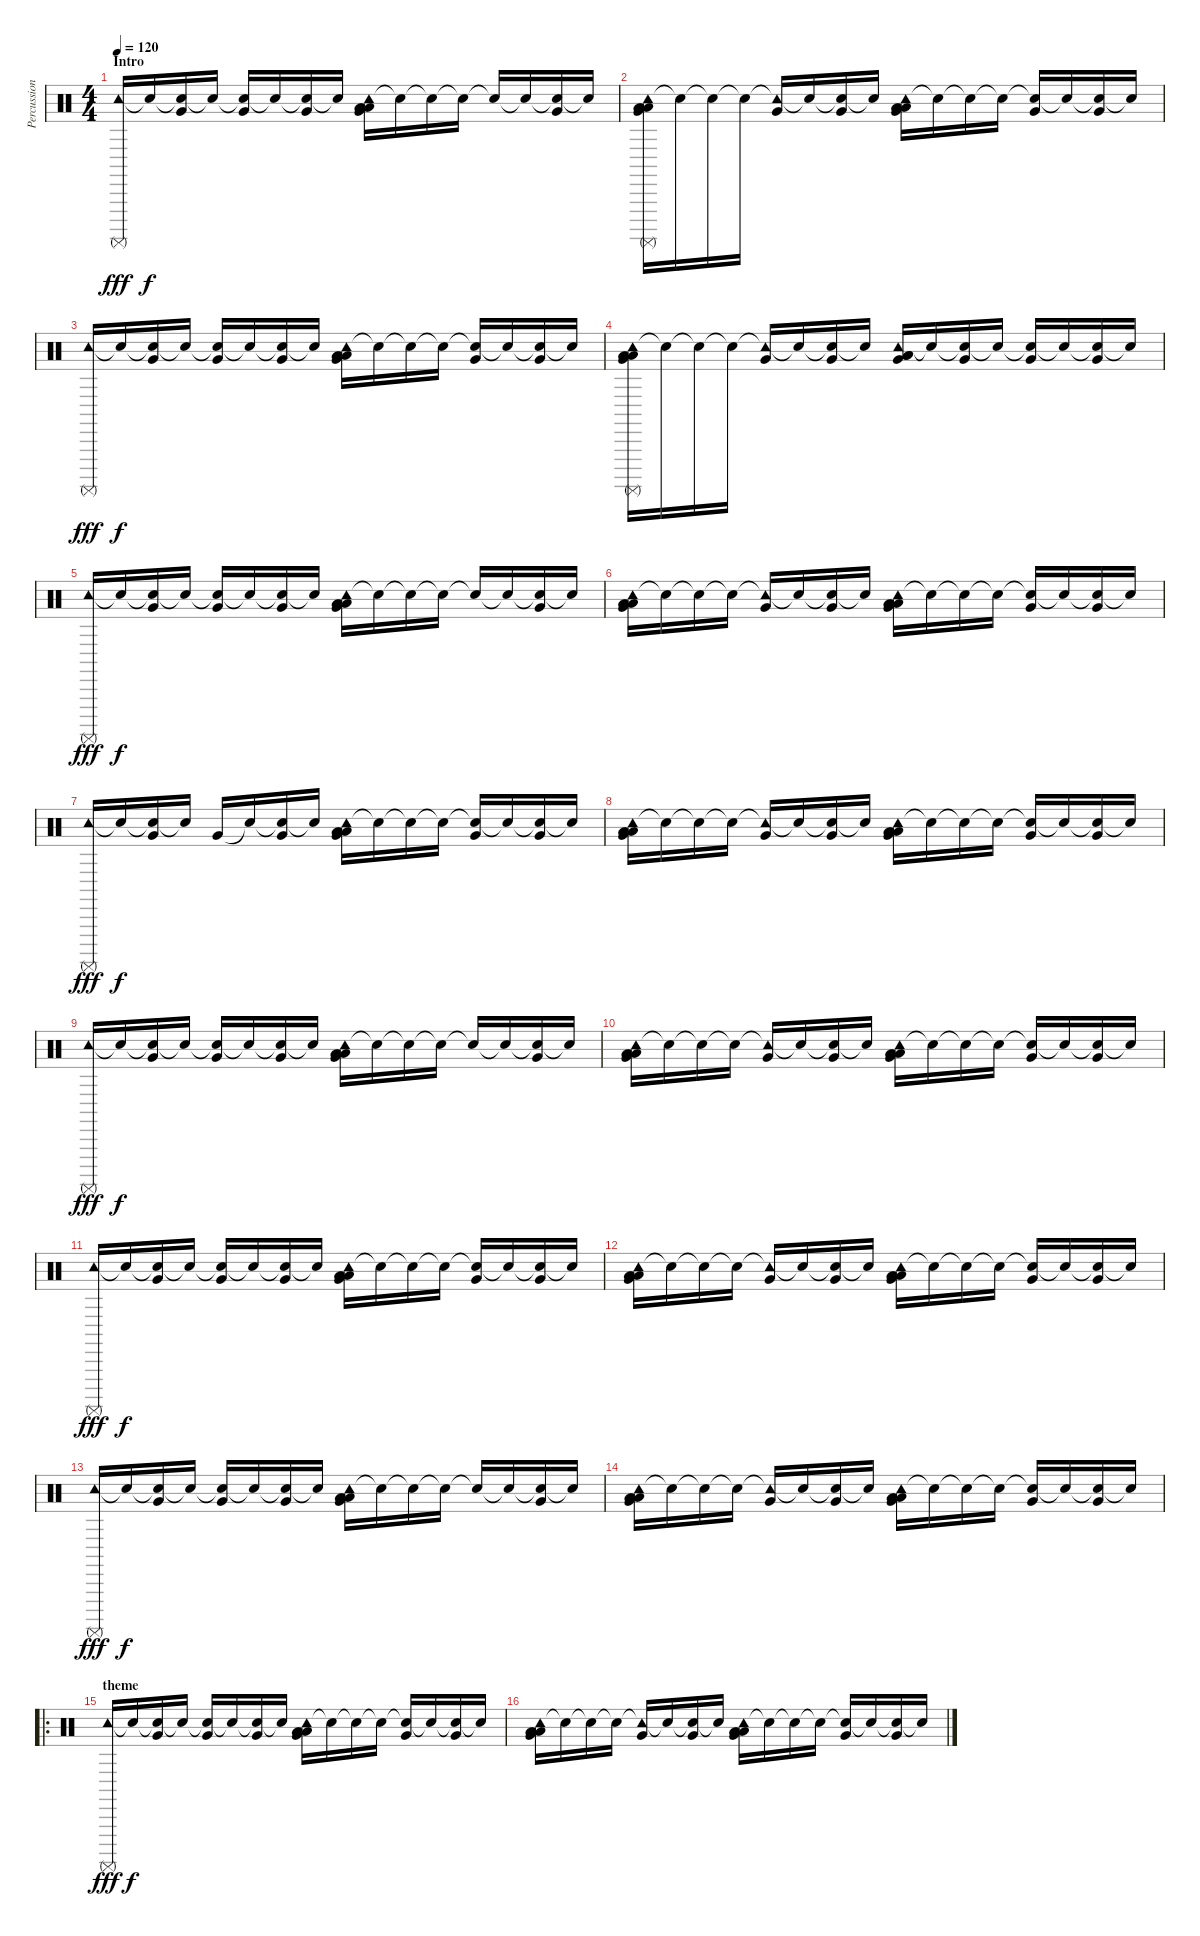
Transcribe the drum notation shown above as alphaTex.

\track ("Percussion" "Percussion") {instrument percussion}
\staff {score}
\articulation defaults
\ts (4 4)
\section ("" "Intro")
\tempo 120
\clef neutral
\ks c
("Tambourine (hit)" "Surdo (mute)").16{dy fff} "Snare (hit)"{t}.16{dy f} ("Snare (hit)"{t} "Very Low Tom (hit)").16 "Snare (hit)"{t}.16 ("Snare (hit)"{t} "Very Low Tom (hit)").16 "Snare (hit)"{t}.16 ("Snare (hit)"{t} "Very Low Tom (hit)").16 "Snare (hit)"{t}.16 ("Tambourine (hit)" "Low Floor Tom (hit)" "Very Low Tom (hit)" "Low Tom (hit)").16 "Snare (hit)"{t}.16 "Snare (hit)"{t}.16 "Snare (hit)"{t}.16 "Snare (hit)"{t}.16 "Snare (hit)"{t}.16 ("Snare (hit)"{t} "Very Low Tom (hit)").16 "Snare (hit)"{t}.16 |
("Tambourine (hit)" "Low Floor Tom (hit)" "Very Low Tom (hit)" "Low Tom (hit)" "Surdo (mute)").16 "Snare (hit)"{t}.16 "Snare (hit)"{t}.16 "Snare (hit)"{t}.16 ("Tambourine (hit)"{t} "Very Low Tom (hit)").16 "Snare (hit)"{t}.16 ("Snare (hit)"{t} "Very Low Tom (hit)").16 "Snare (hit)"{t}.16 ("Tambourine (hit)" "Low Floor Tom (hit)" "Very Low Tom (hit)" "Low Tom (hit)").16 "Snare (hit)"{t}.16 "Snare (hit)"{t}.16 "Snare (hit)"{t}.16 ("Snare (hit)"{t} "Very Low Tom (hit)").16 "Snare (hit)"{t}.16 ("Snare (hit)"{t} "Very Low Tom (hit)").16 "Snare (hit)"{t}.16 |
("Tambourine (hit)" "Surdo (mute)").16{dy fff} "Snare (hit)"{t}.16{dy f} ("Snare (hit)"{t} "Very Low Tom (hit)").16 "Snare (hit)"{t}.16 ("Snare (hit)"{t} "Very Low Tom (hit)").16 "Snare (hit)"{t}.16 ("Snare (hit)"{t} "Very Low Tom (hit)").16 "Snare (hit)"{t}.16 ("Tambourine (hit)" "Low Floor Tom (hit)" "Very Low Tom (hit)" "Low Tom (hit)").16 "Snare (hit)"{t}.16 "Snare (hit)"{t}.16 "Snare (hit)"{t}.16 ("Snare (hit)"{t} "Very Low Tom (hit)").16 "Snare (hit)"{t}.16 ("Snare (hit)"{t} "Very Low Tom (hit)").16 "Snare (hit)"{t}.16 |
("Tambourine (hit)" "Low Floor Tom (hit)" "Very Low Tom (hit)" "Low Tom (hit)" "Surdo (mute)").16 "Snare (hit)"{t}.16 "Snare (hit)"{t}.16 "Snare (hit)"{t}.16 ("Tambourine (hit)"{t} "Very Low Tom (hit)").16 "Snare (hit)"{t}.16 ("Snare (hit)"{t} "Very Low Tom (hit)").16 "Snare (hit)"{t}.16 ("Tambourine (hit)" "Low Floor Tom (hit)" "Very Low Tom (hit)" "Low Tom (hit)").16 "Snare (hit)"{t}.16 ("Snare (hit)"{t} "Very Low Tom (hit)").16 "Snare (hit)"{t}.16 ("Snare (hit)"{t} "Very Low Tom (hit)").16 "Snare (hit)"{t}.16 ("Snare (hit)"{t} "Very Low Tom (hit)").16 "Snare (hit)"{t}.16 |
("Tambourine (hit)" "Surdo (mute)").16{dy fff} "Snare (hit)"{t}.16{dy f} ("Snare (hit)"{t} "Very Low Tom (hit)").16 "Snare (hit)"{t}.16 ("Snare (hit)"{t} "Very Low Tom (hit)").16 "Snare (hit)"{t}.16 ("Snare (hit)"{t} "Very Low Tom (hit)").16 "Snare (hit)"{t}.16 ("Tambourine (hit)" "Low Floor Tom (hit)" "Very Low Tom (hit)" "Low Tom (hit)").16 "Snare (hit)"{t}.16 "Snare (hit)"{t}.16 "Snare (hit)"{t}.16 "Snare (hit)"{t}.16 "Snare (hit)"{t}.16 ("Snare (hit)"{t} "Very Low Tom (hit)").16 "Snare (hit)"{t}.16 |
("Tambourine (hit)" "Low Floor Tom (hit)" "Very Low Tom (hit)" "Low Tom (hit)").16 "Snare (hit)"{t}.16 "Snare (hit)"{t}.16 "Snare (hit)"{t}.16 ("Tambourine (hit)"{t} "Very Low Tom (hit)").16 "Snare (hit)"{t}.16 ("Snare (hit)"{t} "Very Low Tom (hit)").16 "Snare (hit)"{t}.16 ("Tambourine (hit)" "Low Floor Tom (hit)" "Very Low Tom (hit)" "Low Tom (hit)").16 "Snare (hit)"{t}.16 "Snare (hit)"{t}.16 "Snare (hit)"{t}.16 ("Snare (hit)"{t} "Very Low Tom (hit)").16 "Snare (hit)"{t}.16 ("Snare (hit)"{t} "Very Low Tom (hit)").16 "Snare (hit)"{t}.16 |
("Tambourine (hit)" "Surdo (mute)").16{dy fff} "Snare (hit)"{t}.16{dy f} ("Snare (hit)"{t} "Very Low Tom (hit)").16 "Snare (hit)"{t}.16 "Very Low Tom (hit)".16 "Snare (hit)"{t}.16 ("Snare (hit)"{t} "Very Low Tom (hit)").16 "Snare (hit)"{t}.16 ("Tambourine (hit)" "Low Floor Tom (hit)" "Very Low Tom (hit)" "Low Tom (hit)").16 "Snare (hit)"{t}.16 "Snare (hit)"{t}.16 "Snare (hit)"{t}.16 ("Snare (hit)"{t} "Very Low Tom (hit)").16 "Snare (hit)"{t}.16 ("Snare (hit)"{t} "Very Low Tom (hit)").16 "Snare (hit)"{t}.16 |
("Tambourine (hit)" "Low Floor Tom (hit)" "Very Low Tom (hit)" "Low Tom (hit)").16 "Snare (hit)"{t}.16 "Snare (hit)"{t}.16 "Snare (hit)"{t}.16 ("Tambourine (hit)"{t} "Very Low Tom (hit)").16 "Snare (hit)"{t}.16 ("Snare (hit)"{t} "Very Low Tom (hit)").16 "Snare (hit)"{t}.16 ("Tambourine (hit)" "Low Floor Tom (hit)" "Very Low Tom (hit)" "Low Tom (hit)").16 "Snare (hit)"{t}.16 "Snare (hit)"{t}.16 "Snare (hit)"{t}.16 ("Snare (hit)"{t} "Very Low Tom (hit)").16 "Snare (hit)"{t}.16 ("Snare (hit)"{t} "Very Low Tom (hit)").16 "Snare (hit)"{t}.16 |
("Tambourine (hit)" "Surdo (mute)").16{dy fff} "Snare (hit)"{t}.16{dy f} ("Snare (hit)"{t} "Very Low Tom (hit)").16 "Snare (hit)"{t}.16 ("Snare (hit)"{t} "Very Low Tom (hit)").16 "Snare (hit)"{t}.16 ("Snare (hit)"{t} "Very Low Tom (hit)").16 "Snare (hit)"{t}.16 ("Tambourine (hit)" "Low Floor Tom (hit)" "Very Low Tom (hit)" "Low Tom (hit)").16 "Snare (hit)"{t}.16 "Snare (hit)"{t}.16 "Snare (hit)"{t}.16 "Snare (hit)"{t}.16 "Snare (hit)"{t}.16 ("Snare (hit)"{t} "Very Low Tom (hit)").16 "Snare (hit)"{t}.16 |
("Tambourine (hit)" "Low Floor Tom (hit)" "Very Low Tom (hit)" "Low Tom (hit)").16 "Snare (hit)"{t}.16 "Snare (hit)"{t}.16 "Snare (hit)"{t}.16 ("Tambourine (hit)"{t} "Very Low Tom (hit)").16 "Snare (hit)"{t}.16 ("Snare (hit)"{t} "Very Low Tom (hit)").16 "Snare (hit)"{t}.16 ("Tambourine (hit)" "Low Floor Tom (hit)" "Very Low Tom (hit)" "Low Tom (hit)").16 "Snare (hit)"{t}.16 "Snare (hit)"{t}.16 "Snare (hit)"{t}.16 ("Snare (hit)"{t} "Very Low Tom (hit)").16 "Snare (hit)"{t}.16 ("Snare (hit)"{t} "Very Low Tom (hit)").16 "Snare (hit)"{t}.16 |
("Tambourine (hit)" "Surdo (mute)").16{dy fff} "Snare (hit)"{t}.16{dy f} ("Snare (hit)"{t} "Very Low Tom (hit)").16 "Snare (hit)"{t}.16 ("Snare (hit)"{t} "Very Low Tom (hit)").16 "Snare (hit)"{t}.16 ("Snare (hit)"{t} "Very Low Tom (hit)").16 "Snare (hit)"{t}.16 ("Tambourine (hit)" "Low Floor Tom (hit)" "Very Low Tom (hit)" "Low Tom (hit)").16 "Snare (hit)"{t}.16 "Snare (hit)"{t}.16 "Snare (hit)"{t}.16 ("Snare (hit)"{t} "Very Low Tom (hit)").16 "Snare (hit)"{t}.16 ("Snare (hit)"{t} "Very Low Tom (hit)").16 "Snare (hit)"{t}.16 |
("Tambourine (hit)" "Low Floor Tom (hit)" "Very Low Tom (hit)" "Low Tom (hit)").16 "Snare (hit)"{t}.16 "Snare (hit)"{t}.16 "Snare (hit)"{t}.16 ("Tambourine (hit)"{t} "Very Low Tom (hit)").16 "Snare (hit)"{t}.16 ("Snare (hit)"{t} "Very Low Tom (hit)").16 "Snare (hit)"{t}.16 ("Tambourine (hit)" "Low Floor Tom (hit)" "Very Low Tom (hit)" "Low Tom (hit)").16 "Snare (hit)"{t}.16 "Snare (hit)"{t}.16 "Snare (hit)"{t}.16 ("Snare (hit)"{t} "Very Low Tom (hit)").16 "Snare (hit)"{t}.16 ("Snare (hit)"{t} "Very Low Tom (hit)").16 "Snare (hit)"{t}.16 |
("Tambourine (hit)" "Surdo (mute)").16{dy fff} "Snare (hit)"{t}.16{dy f} ("Snare (hit)"{t} "Very Low Tom (hit)").16 "Snare (hit)"{t}.16 ("Snare (hit)"{t} "Very Low Tom (hit)").16 "Snare (hit)"{t}.16 ("Snare (hit)"{t} "Very Low Tom (hit)").16 "Snare (hit)"{t}.16 ("Tambourine (hit)" "Low Floor Tom (hit)" "Very Low Tom (hit)" "Low Tom (hit)").16 "Snare (hit)"{t}.16 "Snare (hit)"{t}.16 "Snare (hit)"{t}.16 "Snare (hit)"{t}.16 "Snare (hit)"{t}.16 ("Snare (hit)"{t} "Very Low Tom (hit)").16 "Snare (hit)"{t}.16 |
("Tambourine (hit)" "Low Floor Tom (hit)" "Very Low Tom (hit)" "Low Tom (hit)").16 "Snare (hit)"{t}.16 "Snare (hit)"{t}.16 "Snare (hit)"{t}.16 ("Tambourine (hit)"{t} "Very Low Tom (hit)").16 "Snare (hit)"{t}.16 ("Snare (hit)"{t} "Very Low Tom (hit)").16 "Snare (hit)"{t}.16 ("Tambourine (hit)" "Low Floor Tom (hit)" "Very Low Tom (hit)" "Low Tom (hit)").16 "Snare (hit)"{t}.16 "Snare (hit)"{t}.16 "Snare (hit)"{t}.16 ("Snare (hit)"{t} "Very Low Tom (hit)").16 "Snare (hit)"{t}.16 ("Snare (hit)"{t} "Very Low Tom (hit)").16 "Snare (hit)"{t}.16 |
\ro
\section ("" "theme")
("Tambourine (hit)" "Surdo (mute)").16{dy fff} "Snare (hit)"{t}.16{dy f} ("Snare (hit)"{t} "Very Low Tom (hit)").16 "Snare (hit)"{t}.16 ("Snare (hit)"{t} "Very Low Tom (hit)").16 "Snare (hit)"{t}.16 ("Snare (hit)"{t} "Very Low Tom (hit)").16 "Snare (hit)"{t}.16 ("Tambourine (hit)" "Low Floor Tom (hit)" "Very Low Tom (hit)" "Low Tom (hit)").16 "Snare (hit)"{t}.16 "Snare (hit)"{t}.16 "Snare (hit)"{t}.16 ("Snare (hit)"{t} "Very Low Tom (hit)").16 "Snare (hit)"{t}.16 ("Snare (hit)"{t} "Very Low Tom (hit)").16 "Snare (hit)"{t}.16 |
("Tambourine (hit)" "Low Floor Tom (hit)" "Very Low Tom (hit)" "Low Tom (hit)").16 "Snare (hit)"{t}.16 "Snare (hit)"{t}.16 "Snare (hit)"{t}.16 ("Tambourine (hit)"{t} "Very Low Tom (hit)").16 "Snare (hit)"{t}.16 ("Snare (hit)"{t} "Very Low Tom (hit)").16 "Snare (hit)"{t}.16 ("Tambourine (hit)" "Low Floor Tom (hit)" "Very Low Tom (hit)" "Low Tom (hit)").16 "Snare (hit)"{t}.16 "Snare (hit)"{t}.16 "Snare (hit)"{t}.16 ("Snare (hit)"{t} "Very Low Tom (hit)").16 "Snare (hit)"{t}.16 ("Snare (hit)"{t} "Very Low Tom (hit)").16 "Snare (hit)"{t}.16
